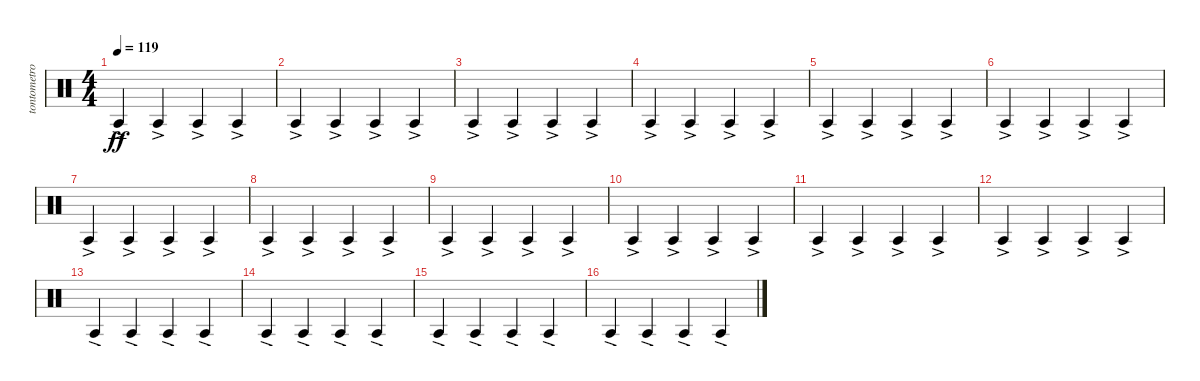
\track ("tontometro" "tontometro") {mute instrument percussion}
\staff {score}
\articulation defaults
\ts (4 4)
\tempo 119
\clef neutral
\ks c "Agogo tow (hit)"{ac}.4{dy ff} "Agogo tow (hit)"{ac}.4 "Agogo tow (hit)"{ac}.4 "Agogo tow (hit)"{ac}.4
|
"Agogo tow (hit)"{ac}.4 "Agogo tow (hit)"{ac}.4 "Agogo tow (hit)"{ac}.4 "Agogo tow (hit)"{ac}.4 |
"Agogo tow (hit)"{ac}.4 "Agogo tow (hit)"{ac}.4 "Agogo tow (hit)"{ac}.4 "Agogo tow (hit)"{ac}.4 |
"Agogo tow (hit)"{ac}.4 "Agogo tow (hit)"{ac}.4 "Agogo tow (hit)"{ac}.4 "Agogo tow (hit)"{ac}.4 |
"Agogo tow (hit)"{ac}.4 "Agogo tow (hit)"{ac}.4 "Agogo tow (hit)"{ac}.4 "Agogo tow (hit)"{ac}.4 |
"Agogo tow (hit)"{ac}.4 "Agogo tow (hit)"{ac}.4 "Agogo tow (hit)"{ac}.4 "Agogo tow (hit)"{ac}.4 |
"Agogo tow (hit)"{ac}.4 "Agogo tow (hit)"{ac}.4 "Agogo tow (hit)"{ac}.4 "Agogo tow (hit)"{ac}.4 |
"Agogo tow (hit)"{ac}.4 "Agogo tow (hit)"{ac}.4 "Agogo tow (hit)"{ac}.4 "Agogo tow (hit)"{ac}.4 |
"Agogo tow (hit)"{ac}.4 "Agogo tow (hit)"{ac}.4 "Agogo tow (hit)"{ac}.4 "Agogo tow (hit)"{ac}.4 |
"Agogo tow (hit)"{ac}.4 "Agogo tow (hit)"{ac}.4 "Agogo tow (hit)"{ac}.4 "Agogo tow (hit)"{ac}.4 |
"Agogo tow (hit)"{ac}.4 "Agogo tow (hit)"{ac}.4 "Agogo tow (hit)"{ac}.4 "Agogo tow (hit)"{ac}.4 |
"Agogo tow (hit)"{ac}.4 "Agogo tow (hit)"{ac}.4 "Agogo tow (hit)"{ac}.4 "Agogo tow (hit)"{ac}.4 |
"Agogo tow (hit)"{ac}.4 "Agogo tow (hit)"{ac}.4 "Agogo tow (hit)"{ac}.4 "Agogo tow (hit)"{ac}.4 |
"Agogo tow (hit)"{ac}.4 "Agogo tow (hit)"{ac}.4 "Agogo tow (hit)"{ac}.4 "Agogo tow (hit)"{ac}.4 |
"Agogo tow (hit)"{ac}.4 "Agogo tow (hit)"{ac}.4 "Agogo tow (hit)"{ac}.4 "Agogo tow (hit)"{ac}.4 |
"Agogo tow (hit)"{ac}.4 "Agogo tow (hit)"{ac}.4 "Agogo tow (hit)"{ac}.4 "Agogo tow (hit)"{ac}.4
